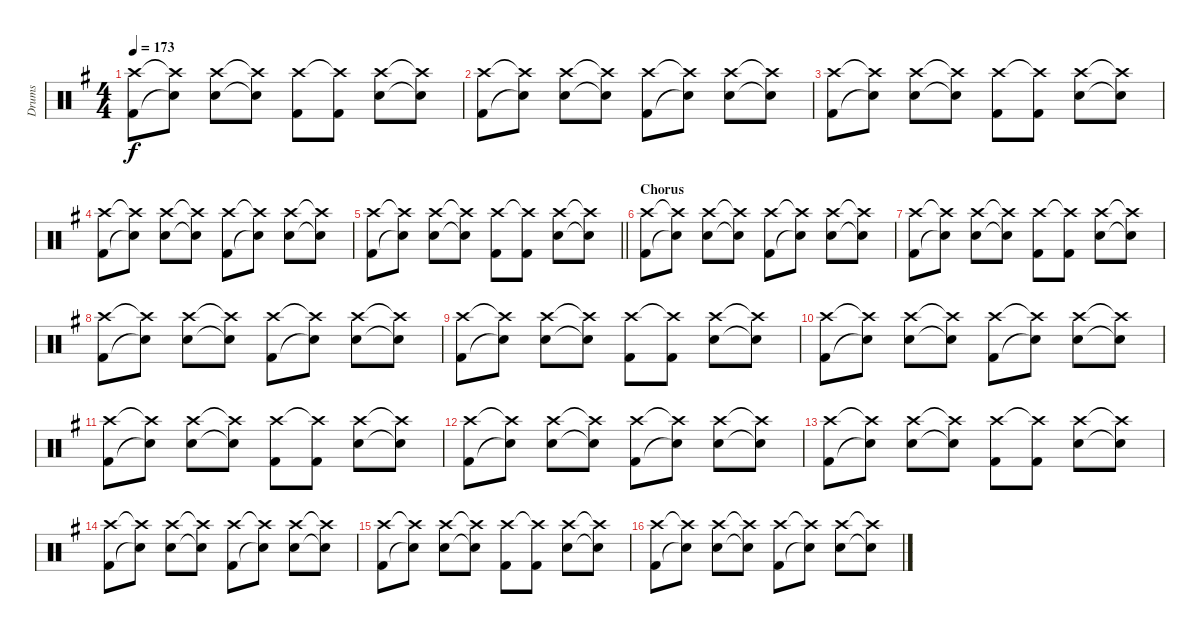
\track ("Drums" "Drums") {instrument percussion}
\staff {score}
\articulation defaults
\ts (4 4)
\tempo 173
\clef neutral
\ks g
("Kick (hit) 2" "Crash high (hit)").8{dy f} ("Snare (hit)"{t} "Crash high (hit)"{t}).8 ("Snare (hit) 2" "Crash high (hit)").8 ("Snare (hit)"{t} "Crash high (hit)"{t}).8 ("Kick (hit) 2" "Crash high (hit)").8 ("Kick (hit) 2" "Crash high (hit)"{t}).8 ("Snare (hit) 2" "Crash high (hit)").8 ("Snare (hit)"{t} "Crash high (hit)"{t}).8 |
("Kick (hit) 2" "Crash high (hit)").8 ("Snare (hit)"{t} "Crash high (hit)"{t}).8 ("Snare (hit) 2" "Crash high (hit)").8 ("Snare (hit)"{t} "Crash high (hit)"{t}).8 ("Kick (hit) 2" "Crash high (hit)").8 ("Snare (hit)"{t} "Crash high (hit)"{t}).8 ("Snare (hit) 2" "Crash high (hit)").8 ("Snare (hit)"{t} "Crash high (hit)"{t}).8 |
("Kick (hit) 2" "Crash high (hit)").8 ("Snare (hit)"{t} "Crash high (hit)"{t}).8 ("Snare (hit) 2" "Crash high (hit)").8 ("Snare (hit)"{t} "Crash high (hit)"{t}).8 ("Kick (hit) 2" "Crash high (hit)").8 ("Kick (hit) 2" "Crash high (hit)"{t}).8 ("Snare (hit) 2" "Crash high (hit)").8 ("Snare (hit)"{t} "Crash high (hit)"{t}).8 |
("Kick (hit) 2" "Crash high (hit)").8 ("Snare (hit)"{t} "Crash high (hit)"{t}).8 ("Snare (hit) 2" "Crash high (hit)").8 ("Snare (hit)"{t} "Crash high (hit)"{t}).8 ("Kick (hit) 2" "Crash high (hit)").8 ("Snare (hit)"{t} "Crash high (hit)"{t}).8 ("Snare (hit) 2" "Crash high (hit)").8 ("Snare (hit)"{t} "Crash high (hit)"{t}).8 |
\barLineRight lightlight
("Kick (hit) 2" "Crash high (hit)").8 ("Snare (hit)"{t} "Crash high (hit)"{t}).8 ("Snare (hit) 2" "Crash high (hit)").8 ("Snare (hit)"{t} "Crash high (hit)"{t}).8 ("Kick (hit) 2" "Crash high (hit)").8 ("Kick (hit) 2" "Crash high (hit)"{t}).8 ("Snare (hit) 2" "Crash high (hit)").8 ("Snare (hit)"{t} "Crash high (hit)"{t}).8 |
\section ("" "Chorus")
("Kick (hit) 2" "Crash high (hit)").8 ("Snare (hit)"{t} "Crash high (hit)"{t}).8 ("Snare (hit) 2" "Crash high (hit)").8 ("Snare (hit)"{t} "Crash high (hit)"{t}).8 ("Kick (hit) 2" "Crash high (hit)").8 ("Snare (hit)"{t} "Crash high (hit)"{t}).8 ("Snare (hit) 2" "Crash high (hit)").8 ("Snare (hit)"{t} "Crash high (hit)"{t}).8 |
("Kick (hit) 2" "Crash high (hit)").8 ("Snare (hit)"{t} "Crash high (hit)"{t}).8 ("Snare (hit) 2" "Crash high (hit)").8 ("Snare (hit)"{t} "Crash high (hit)"{t}).8 ("Kick (hit) 2" "Crash high (hit)").8 ("Kick (hit) 2" "Crash high (hit)"{t}).8 ("Snare (hit) 2" "Crash high (hit)").8 ("Snare (hit)"{t} "Crash high (hit)"{t}).8 |
("Kick (hit) 2" "Crash high (hit)").8 ("Snare (hit)"{t} "Crash high (hit)"{t}).8 ("Snare (hit) 2" "Crash high (hit)").8 ("Snare (hit)"{t} "Crash high (hit)"{t}).8 ("Kick (hit) 2" "Crash high (hit)").8 ("Snare (hit)"{t} "Crash high (hit)"{t}).8 ("Snare (hit) 2" "Crash high (hit)").8 ("Snare (hit)"{t} "Crash high (hit)"{t}).8 |
("Kick (hit) 2" "Crash high (hit)").8 ("Snare (hit)"{t} "Crash high (hit)"{t}).8 ("Snare (hit) 2" "Crash high (hit)").8 ("Snare (hit)"{t} "Crash high (hit)"{t}).8 ("Kick (hit) 2" "Crash high (hit)").8 ("Kick (hit) 2" "Crash high (hit)"{t}).8 ("Snare (hit) 2" "Crash high (hit)").8 ("Snare (hit)"{t} "Crash high (hit)"{t}).8 |
("Kick (hit) 2" "Crash high (hit)").8 ("Snare (hit)"{t} "Crash high (hit)"{t}).8 ("Snare (hit) 2" "Crash high (hit)").8 ("Snare (hit)"{t} "Crash high (hit)"{t}).8 ("Kick (hit) 2" "Crash high (hit)").8 ("Snare (hit)"{t} "Crash high (hit)"{t}).8 ("Snare (hit) 2" "Crash high (hit)").8 ("Snare (hit)"{t} "Crash high (hit)"{t}).8 |
("Kick (hit) 2" "Crash high (hit)").8 ("Snare (hit)"{t} "Crash high (hit)"{t}).8 ("Snare (hit) 2" "Crash high (hit)").8 ("Snare (hit)"{t} "Crash high (hit)"{t}).8 ("Kick (hit) 2" "Crash high (hit)").8 ("Kick (hit) 2" "Crash high (hit)"{t}).8 ("Snare (hit) 2" "Crash high (hit)").8 ("Snare (hit)"{t} "Crash high (hit)"{t}).8 |
("Kick (hit) 2" "Crash high (hit)").8 ("Snare (hit)"{t} "Crash high (hit)"{t}).8 ("Snare (hit) 2" "Crash high (hit)").8 ("Snare (hit)"{t} "Crash high (hit)"{t}).8 ("Kick (hit) 2" "Crash high (hit)").8 ("Snare (hit)"{t} "Crash high (hit)"{t}).8 ("Snare (hit) 2" "Crash high (hit)").8 ("Snare (hit)"{t} "Crash high (hit)"{t}).8 |
("Kick (hit) 2" "Crash high (hit)").8 ("Snare (hit)"{t} "Crash high (hit)"{t}).8 ("Snare (hit) 2" "Crash high (hit)").8 ("Snare (hit)"{t} "Crash high (hit)"{t}).8 ("Kick (hit) 2" "Crash high (hit)").8 ("Kick (hit) 2" "Crash high (hit)"{t}).8 ("Snare (hit) 2" "Crash high (hit)").8 ("Snare (hit)"{t} "Crash high (hit)"{t}).8 |
("Kick (hit) 2" "Crash high (hit)").8 ("Snare (hit)"{t} "Crash high (hit)"{t}).8 ("Snare (hit) 2" "Crash high (hit)").8 ("Snare (hit)"{t} "Crash high (hit)"{t}).8 ("Kick (hit) 2" "Crash high (hit)").8 ("Snare (hit)"{t} "Crash high (hit)"{t}).8 ("Snare (hit) 2" "Crash high (hit)").8 ("Snare (hit)"{t} "Crash high (hit)"{t}).8 |
("Kick (hit) 2" "Crash high (hit)").8 ("Snare (hit)"{t} "Crash high (hit)"{t}).8 ("Snare (hit) 2" "Crash high (hit)").8 ("Snare (hit)"{t} "Crash high (hit)"{t}).8 ("Kick (hit) 2" "Crash high (hit)").8 ("Kick (hit) 2" "Crash high (hit)"{t}).8 ("Snare (hit) 2" "Crash high (hit)").8 ("Snare (hit)"{t} "Crash high (hit)"{t}).8 |
("Kick (hit) 2" "Crash high (hit)").8 ("Snare (hit)"{t} "Crash high (hit)"{t}).8 ("Snare (hit) 2" "Crash high (hit)").8 ("Snare (hit)"{t} "Crash high (hit)"{t}).8 ("Kick (hit) 2" "Crash high (hit)").8 ("Snare (hit)"{t} "Crash high (hit)"{t}).8 ("Snare (hit) 2" "Crash high (hit)").8 ("Snare (hit)"{t} "Crash high (hit)"{t}).8
